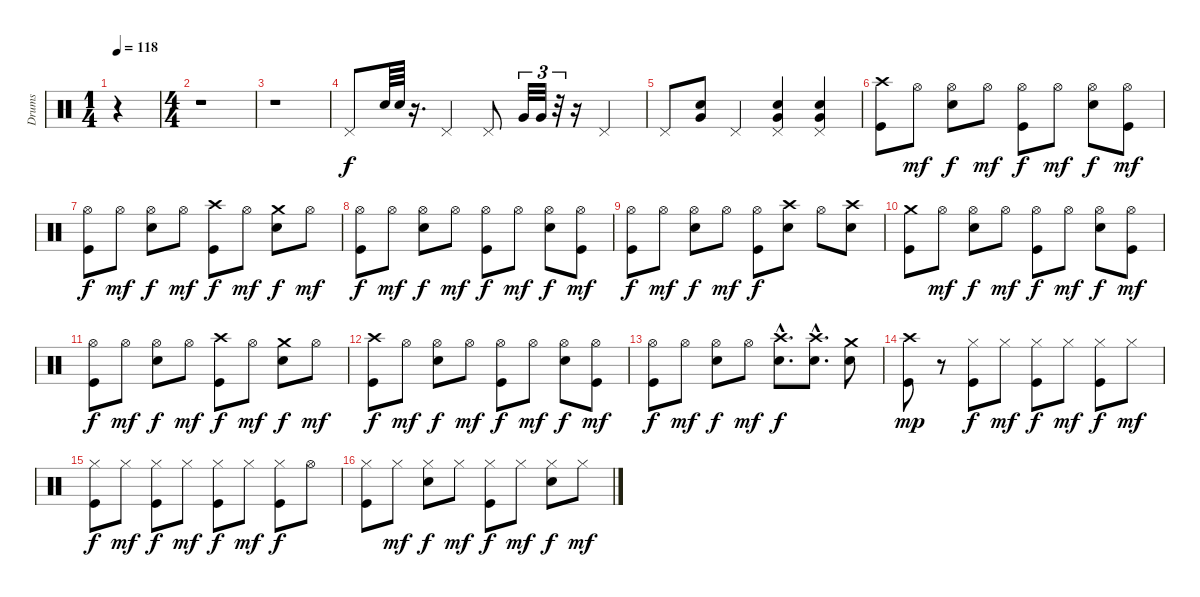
\track ("Drums" "Drums") {instrument percussion}
\staff {score}
\articulation defaults
\ts (1 4)
\tempo 118
\clef neutral
\ks c
r.4{dy f} |
\ts (4 4)
r.1 |
r.1 |
"Pedal Hi-Hat (hit)".8 "Snare (hit) 2".64 "Snare (hit) 2".64 r.16{d} "Pedal Hi-Hat (hit)".4 "Pedal Hi-Hat (hit)".8 "Very Low Tom (hit)".32{tu (3 2)} "Very Low Tom (hit)".32{tu (3 2)} r.32{tu (3 2)} r.16 "Pedal Hi-Hat (hit)".4 |
"Pedal Hi-Hat (hit)".8 ("Snare (hit) 2" "Very Low Tom (hit)").8 "Pedal Hi-Hat (hit)".4 ("Pedal Hi-Hat (hit)" "Snare (hit) 2" "Very Low Tom (hit)").4 ("Pedal Hi-Hat (hit)" "Snare (hit) 2" "Very Low Tom (hit)").4 |
("Kick (hit)" "Crash high (hit)").8 "Hi-Hat (open)".8{dy mf} ("Hi-Hat (open)" "Snare (hit) 2").8{dy f} "Hi-Hat (open)".8{dy mf} ("Hi-Hat (open)" "Kick (hit)").8{dy f} "Hi-Hat (open)".8{dy mf} ("Hi-Hat (open)" "Snare (hit) 2").8{dy f} ("Hi-Hat (open)" "Kick (hit)").8{dy mf} |
("Hi-Hat (open)" "Kick (hit)").8{dy f} "Hi-Hat (open)".8{dy mf} ("Hi-Hat (open)" "Snare (hit) 2").8{dy f} "Hi-Hat (open)".8{dy mf} ("Kick (hit)" "Crash high (hit)").8{dy f} "Hi-Hat (open)".8{dy mf} ("Snare (hit) 2" "Crash medium (hit)").8{dy f} "Hi-Hat (open)".8{dy mf} |
("Hi-Hat (open)" "Kick (hit)").8{dy f} "Hi-Hat (open)".8{dy mf} ("Hi-Hat (open)" "Snare (hit) 2").8{dy f} "Hi-Hat (open)".8{dy mf} ("Hi-Hat (open)" "Kick (hit)").8{dy f} "Hi-Hat (open)".8{dy mf} ("Hi-Hat (open)" "Snare (hit) 2").8{dy f} ("Hi-Hat (open)" "Kick (hit)").8{dy mf} |
("Hi-Hat (open)" "Kick (hit)").8{dy f} "Hi-Hat (open)".8{dy mf} ("Hi-Hat (open)" "Snare (hit) 2").8{dy f} "Hi-Hat (open)".8{dy mf} ("Hi-Hat (open)" "Kick (hit)").8{dy f} ("Snare (hit) 2" "Crash high (hit)").8 "Hi-Hat (open)".8 ("Snare (hit) 2" "Crash high (hit)").8 |
("Kick (hit)" "Crash medium (hit)").8 "Hi-Hat (open)".8{dy mf} ("Hi-Hat (open)" "Snare (hit) 2").8{dy f} "Hi-Hat (open)".8{dy mf} ("Hi-Hat (open)" "Kick (hit)").8{dy f} "Hi-Hat (open)".8{dy mf} ("Hi-Hat (open)" "Snare (hit) 2").8{dy f} ("Hi-Hat (open)" "Kick (hit)").8{dy mf} |
("Hi-Hat (open)" "Kick (hit)").8{dy f} "Hi-Hat (open)".8{dy mf} ("Hi-Hat (open)" "Snare (hit) 2").8{dy f} "Hi-Hat (open)".8{dy mf} ("Kick (hit)" "Crash high (hit)").8{dy f} "Hi-Hat (open)".8{dy mf} ("Snare (hit) 2" "Crash medium (hit)").8{dy f} "Hi-Hat (open)".8{dy mf} |
("Crash high (hit)" "Kick (hit)").8{dy f} "Hi-Hat (open)".8{dy mf} ("Hi-Hat (open)" "Snare (hit) 2").8{dy f} "Hi-Hat (open)".8{dy mf} ("Hi-Hat (open)" "Kick (hit)").8{dy f} "Hi-Hat (open)".8{dy mf} ("Hi-Hat (open)" "Snare (hit) 2").8{dy f} ("Hi-Hat (open)" "Kick (hit)").8{dy mf} |
("Hi-Hat (open)" "Kick (hit)").8{dy f} "Hi-Hat (open)".8{dy mf} ("Hi-Hat (open)" "Snare (hit) 2").8{dy f} "Hi-Hat (open)".8{dy mf} ("Crash high (hit)"{hac} "Snare (hit) 2"{hac}).8{d dy f} ("Crash high (hit)"{hac} "Snare (hit) 2"{hac}).8{d} ("Crash medium (hit)" "Snare (hit) 2").8 |
("Crash high (hit)" "Kick (hit)").8{dy mp} r.8 ("Hi-Hat (closed)" "Kick (hit)").8{dy f} "Hi-Hat (closed)".8{dy mf} ("Hi-Hat (closed)" "Kick (hit)").8{dy f} "Hi-Hat (closed)".8{dy mf} ("Hi-Hat (closed)" "Kick (hit)").8{dy f} "Hi-Hat (closed)".8{dy mf} |
("Hi-Hat (closed)" "Kick (hit)").8{dy f} "Hi-Hat (closed)".8{dy mf} ("Hi-Hat (closed)" "Kick (hit)").8{dy f} "Hi-Hat (closed)".8{dy mf} ("Hi-Hat (closed)" "Kick (hit)").8{dy f} "Hi-Hat (closed)".8{dy mf} ("Hi-Hat (closed)" "Kick (hit)").8{dy f} "Hi-Hat (open)".8 |
("Hi-Hat (closed)" "Kick (hit)").8 "Hi-Hat (closed)".8{dy mf} ("Hi-Hat (closed)" "Snare (hit) 2").8{dy f} "Hi-Hat (closed)".8{dy mf} ("Hi-Hat (closed)" "Kick (hit)").8{dy f} "Hi-Hat (closed)".8{dy mf} ("Hi-Hat (closed)" "Snare (hit) 2").8{dy f} "Hi-Hat (closed)".8{dy mf}
